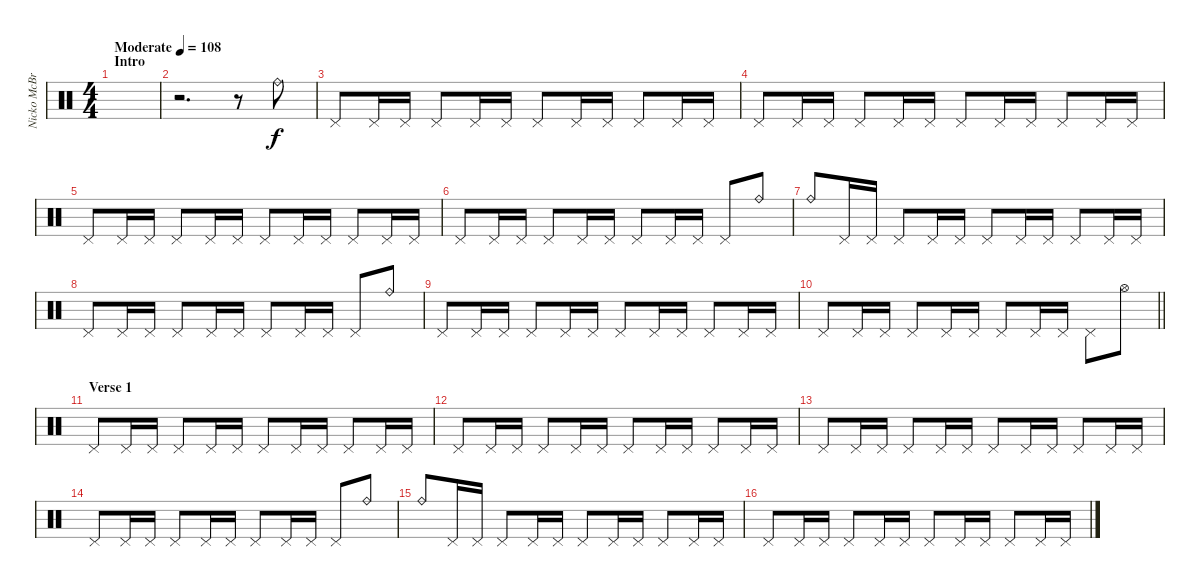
\track ("Nicko McBrain" "Nicko McBr") {instrument percussion}
\staff {score}
\articulation defaults
\ts (4 4)
\section ("" "Intro")
\tempo (108 "Moderate")
\clef neutral
\ks c
|
r.2{d} r.8 "Ride (bell)".8 |
"Pedal Hi-Hat (hit)".8 "Pedal Hi-Hat (hit)".16 "Pedal Hi-Hat (hit)".16 "Pedal Hi-Hat (hit)".8 "Pedal Hi-Hat (hit)".16 "Pedal Hi-Hat (hit)".16 "Pedal Hi-Hat (hit)".8 "Pedal Hi-Hat (hit)".16 "Pedal Hi-Hat (hit)".16 "Pedal Hi-Hat (hit)".8 "Pedal Hi-Hat (hit)".16 "Pedal Hi-Hat (hit)".16 |
"Pedal Hi-Hat (hit)".8 "Pedal Hi-Hat (hit)".16 "Pedal Hi-Hat (hit)".16 "Pedal Hi-Hat (hit)".8 "Pedal Hi-Hat (hit)".16 "Pedal Hi-Hat (hit)".16 "Pedal Hi-Hat (hit)".8 "Pedal Hi-Hat (hit)".16 "Pedal Hi-Hat (hit)".16 "Pedal Hi-Hat (hit)".8 "Pedal Hi-Hat (hit)".16 "Pedal Hi-Hat (hit)".16 |
"Pedal Hi-Hat (hit)".8 "Pedal Hi-Hat (hit)".16 "Pedal Hi-Hat (hit)".16 "Pedal Hi-Hat (hit)".8 "Pedal Hi-Hat (hit)".16 "Pedal Hi-Hat (hit)".16 "Pedal Hi-Hat (hit)".8 "Pedal Hi-Hat (hit)".16 "Pedal Hi-Hat (hit)".16 "Pedal Hi-Hat (hit)".8 "Pedal Hi-Hat (hit)".16 "Pedal Hi-Hat (hit)".16 |
"Pedal Hi-Hat (hit)".8 "Pedal Hi-Hat (hit)".16 "Pedal Hi-Hat (hit)".16 "Pedal Hi-Hat (hit)".8 "Pedal Hi-Hat (hit)".16 "Pedal Hi-Hat (hit)".16 "Pedal Hi-Hat (hit)".8 "Pedal Hi-Hat (hit)".16 "Pedal Hi-Hat (hit)".16 "Pedal Hi-Hat (hit)".8 "Ride (bell)".8 |
"Ride (bell)".8 "Pedal Hi-Hat (hit)".16 "Pedal Hi-Hat (hit)".16 "Pedal Hi-Hat (hit)".8 "Pedal Hi-Hat (hit)".16 "Pedal Hi-Hat (hit)".16 "Pedal Hi-Hat (hit)".8 "Pedal Hi-Hat (hit)".16 "Pedal Hi-Hat (hit)".16 "Pedal Hi-Hat (hit)".8 "Pedal Hi-Hat (hit)".16 "Pedal Hi-Hat (hit)".16 |
"Pedal Hi-Hat (hit)".8 "Pedal Hi-Hat (hit)".16 "Pedal Hi-Hat (hit)".16 "Pedal Hi-Hat (hit)".8 "Pedal Hi-Hat (hit)".16 "Pedal Hi-Hat (hit)".16 "Pedal Hi-Hat (hit)".8 "Pedal Hi-Hat (hit)".16 "Pedal Hi-Hat (hit)".16 "Pedal Hi-Hat (hit)".8 "Ride (bell)".8 |
"Pedal Hi-Hat (hit)".8 "Pedal Hi-Hat (hit)".16 "Pedal Hi-Hat (hit)".16 "Pedal Hi-Hat (hit)".8 "Pedal Hi-Hat (hit)".16 "Pedal Hi-Hat (hit)".16 "Pedal Hi-Hat (hit)".8 "Pedal Hi-Hat (hit)".16 "Pedal Hi-Hat (hit)".16 "Pedal Hi-Hat (hit)".8 "Pedal Hi-Hat (hit)".16 "Pedal Hi-Hat (hit)".16 |
\barLineRight lightlight "Pedal Hi-Hat (hit)".8 "Pedal Hi-Hat (hit)".16 "Pedal Hi-Hat (hit)".16 "Pedal Hi-Hat (hit)".8 "Pedal Hi-Hat (hit)".16 "Pedal Hi-Hat (hit)".16 "Pedal Hi-Hat (hit)".8 "Pedal Hi-Hat (hit)".16 "Pedal Hi-Hat (hit)".16 "Pedal Hi-Hat (hit)".8 "Hi-Hat (open)".8
|
\section ("" "Verse 1")
"Pedal Hi-Hat (hit)".8 "Pedal Hi-Hat (hit)".16 "Pedal Hi-Hat (hit)".16 "Pedal Hi-Hat (hit)".8 "Pedal Hi-Hat (hit)".16 "Pedal Hi-Hat (hit)".16 "Pedal Hi-Hat (hit)".8 "Pedal Hi-Hat (hit)".16 "Pedal Hi-Hat (hit)".16 "Pedal Hi-Hat (hit)".8 "Pedal Hi-Hat (hit)".16 "Pedal Hi-Hat (hit)".16 |
"Pedal Hi-Hat (hit)".8 "Pedal Hi-Hat (hit)".16 "Pedal Hi-Hat (hit)".16 "Pedal Hi-Hat (hit)".8 "Pedal Hi-Hat (hit)".16 "Pedal Hi-Hat (hit)".16 "Pedal Hi-Hat (hit)".8 "Pedal Hi-Hat (hit)".16 "Pedal Hi-Hat (hit)".16 "Pedal Hi-Hat (hit)".8 "Pedal Hi-Hat (hit)".16 "Pedal Hi-Hat (hit)".16 |
"Pedal Hi-Hat (hit)".8 "Pedal Hi-Hat (hit)".16 "Pedal Hi-Hat (hit)".16 "Pedal Hi-Hat (hit)".8 "Pedal Hi-Hat (hit)".16 "Pedal Hi-Hat (hit)".16 "Pedal Hi-Hat (hit)".8 "Pedal Hi-Hat (hit)".16 "Pedal Hi-Hat (hit)".16 "Pedal Hi-Hat (hit)".8 "Pedal Hi-Hat (hit)".16 "Pedal Hi-Hat (hit)".16 |
"Pedal Hi-Hat (hit)".8 "Pedal Hi-Hat (hit)".16 "Pedal Hi-Hat (hit)".16 "Pedal Hi-Hat (hit)".8 "Pedal Hi-Hat (hit)".16 "Pedal Hi-Hat (hit)".16 "Pedal Hi-Hat (hit)".8 "Pedal Hi-Hat (hit)".16 "Pedal Hi-Hat (hit)".16 "Pedal Hi-Hat (hit)".8 "Ride (bell)".8 |
"Ride (bell)".8 "Pedal Hi-Hat (hit)".16 "Pedal Hi-Hat (hit)".16 "Pedal Hi-Hat (hit)".8 "Pedal Hi-Hat (hit)".16 "Pedal Hi-Hat (hit)".16 "Pedal Hi-Hat (hit)".8 "Pedal Hi-Hat (hit)".16 "Pedal Hi-Hat (hit)".16 "Pedal Hi-Hat (hit)".8 "Pedal Hi-Hat (hit)".16 "Pedal Hi-Hat (hit)".16 |
"Pedal Hi-Hat (hit)".8 "Pedal Hi-Hat (hit)".16 "Pedal Hi-Hat (hit)".16 "Pedal Hi-Hat (hit)".8 "Pedal Hi-Hat (hit)".16 "Pedal Hi-Hat (hit)".16 "Pedal Hi-Hat (hit)".8 "Pedal Hi-Hat (hit)".16 "Pedal Hi-Hat (hit)".16 "Pedal Hi-Hat (hit)".8 "Pedal Hi-Hat (hit)".16 "Pedal Hi-Hat (hit)".16
